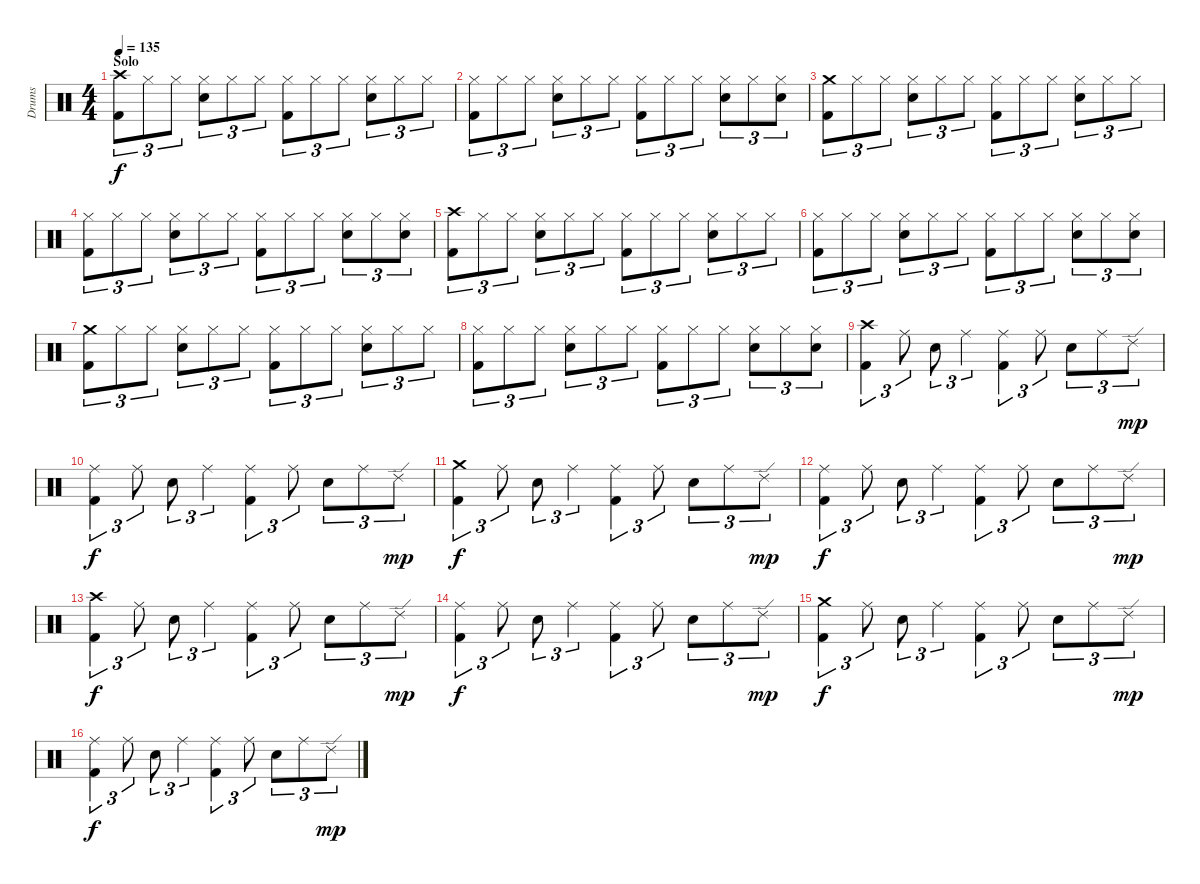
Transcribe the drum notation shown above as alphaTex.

\track ("Drums" "Drums") {instrument percussion}
\staff {score}
\articulation defaults
\ts (4 4)
\section ("" "Solo")
\tempo 135
\clef neutral
\ks c
("Crash high (hit)" "Kick (hit) 2").8{tu (3 2) dy f} "Hi-Hat (closed)".8{tu (3 2)} "Hi-Hat (closed)".8{tu (3 2)} ("Hi-Hat (closed)" "Snare (hit) 2").8{tu (3 2)} "Hi-Hat (closed)".8{tu (3 2)} "Hi-Hat (closed)".8{tu (3 2)} ("Hi-Hat (closed)" "Kick (hit) 2").8{tu (3 2)} "Hi-Hat (closed)".8{tu (3 2)} "Hi-Hat (closed)".8{tu (3 2)} ("Hi-Hat (closed)" "Snare (hit) 2").8{tu (3 2)} "Hi-Hat (closed)".8{tu (3 2)} "Hi-Hat (closed)".8{tu (3 2)} |
("Hi-Hat (closed)" "Kick (hit) 2").8{tu (3 2)} "Hi-Hat (closed)".8{tu (3 2)} "Hi-Hat (closed)".8{tu (3 2)} ("Hi-Hat (closed)" "Snare (hit) 2").8{tu (3 2)} "Hi-Hat (closed)".8{tu (3 2)} "Hi-Hat (closed)".8{tu (3 2)} ("Hi-Hat (closed)" "Kick (hit) 2").8{tu (3 2)} "Hi-Hat (closed)".8{tu (3 2)} "Hi-Hat (closed)".8{tu (3 2)} ("Hi-Hat (closed)" "Snare (hit) 2").8{tu (3 2)} "Hi-Hat (closed)".8{tu (3 2)} ("Hi-Hat (closed)" "Snare (hit) 2").8{tu (3 2)} |
("Crash medium (hit)" "Kick (hit) 2").8{tu (3 2)} "Hi-Hat (closed)".8{tu (3 2)} "Hi-Hat (closed)".8{tu (3 2)} ("Hi-Hat (closed)" "Snare (hit) 2").8{tu (3 2)} "Hi-Hat (closed)".8{tu (3 2)} "Hi-Hat (closed)".8{tu (3 2)} ("Hi-Hat (closed)" "Kick (hit) 2").8{tu (3 2)} "Hi-Hat (closed)".8{tu (3 2)} "Hi-Hat (closed)".8{tu (3 2)} ("Hi-Hat (closed)" "Snare (hit) 2").8{tu (3 2)} "Hi-Hat (closed)".8{tu (3 2)} "Hi-Hat (closed)".8{tu (3 2)} |
("Hi-Hat (closed)" "Kick (hit) 2").8{tu (3 2)} "Hi-Hat (closed)".8{tu (3 2)} "Hi-Hat (closed)".8{tu (3 2)} ("Hi-Hat (closed)" "Snare (hit) 2").8{tu (3 2)} "Hi-Hat (closed)".8{tu (3 2)} "Hi-Hat (closed)".8{tu (3 2)} ("Hi-Hat (closed)" "Kick (hit) 2").8{tu (3 2)} "Hi-Hat (closed)".8{tu (3 2)} "Hi-Hat (closed)".8{tu (3 2)} ("Hi-Hat (closed)" "Snare (hit) 2").8{tu (3 2)} "Hi-Hat (closed)".8{tu (3 2)} ("Hi-Hat (closed)" "Snare (hit) 2").8{tu (3 2)} |
("Crash high (hit)" "Kick (hit) 2").8{tu (3 2)} "Hi-Hat (closed)".8{tu (3 2)} "Hi-Hat (closed)".8{tu (3 2)} ("Hi-Hat (closed)" "Snare (hit) 2").8{tu (3 2)} "Hi-Hat (closed)".8{tu (3 2)} "Hi-Hat (closed)".8{tu (3 2)} ("Hi-Hat (closed)" "Kick (hit) 2").8{tu (3 2)} "Hi-Hat (closed)".8{tu (3 2)} "Hi-Hat (closed)".8{tu (3 2)} ("Hi-Hat (closed)" "Snare (hit) 2").8{tu (3 2)} "Hi-Hat (closed)".8{tu (3 2)} "Hi-Hat (closed)".8{tu (3 2)} |
("Hi-Hat (closed)" "Kick (hit) 2").8{tu (3 2)} "Hi-Hat (closed)".8{tu (3 2)} "Hi-Hat (closed)".8{tu (3 2)} ("Hi-Hat (closed)" "Snare (hit) 2").8{tu (3 2)} "Hi-Hat (closed)".8{tu (3 2)} "Hi-Hat (closed)".8{tu (3 2)} ("Hi-Hat (closed)" "Kick (hit) 2").8{tu (3 2)} "Hi-Hat (closed)".8{tu (3 2)} "Hi-Hat (closed)".8{tu (3 2)} ("Hi-Hat (closed)" "Snare (hit) 2").8{tu (3 2)} "Hi-Hat (closed)".8{tu (3 2)} ("Hi-Hat (closed)" "Snare (hit) 2").8{tu (3 2)} |
("Crash medium (hit)" "Kick (hit) 2").8{tu (3 2)} "Hi-Hat (closed)".8{tu (3 2)} "Hi-Hat (closed)".8{tu (3 2)} ("Hi-Hat (closed)" "Snare (hit) 2").8{tu (3 2)} "Hi-Hat (closed)".8{tu (3 2)} "Hi-Hat (closed)".8{tu (3 2)} ("Hi-Hat (closed)" "Kick (hit) 2").8{tu (3 2)} "Hi-Hat (closed)".8{tu (3 2)} "Hi-Hat (closed)".8{tu (3 2)} ("Hi-Hat (closed)" "Snare (hit) 2").8{tu (3 2)} "Hi-Hat (closed)".8{tu (3 2)} "Hi-Hat (closed)".8{tu (3 2)} |
("Hi-Hat (closed)" "Kick (hit) 2").8{tu (3 2)} "Hi-Hat (closed)".8{tu (3 2)} "Hi-Hat (closed)".8{tu (3 2)} ("Hi-Hat (closed)" "Snare (hit) 2").8{tu (3 2)} "Hi-Hat (closed)".8{tu (3 2)} "Hi-Hat (closed)".8{tu (3 2)} ("Hi-Hat (closed)" "Kick (hit) 2").8{tu (3 2)} "Hi-Hat (closed)".8{tu (3 2)} "Hi-Hat (closed)".8{tu (3 2)} ("Hi-Hat (closed)" "Snare (hit) 2").8{tu (3 2)} "Hi-Hat (closed)".8{tu (3 2)} ("Hi-Hat (closed)" "Snare (hit) 2").8{tu (3 2)} |
("Crash high (hit)" "Kick (hit) 2").4{tu (3 2)} "Ride (middle)".8{tu (3 2)} "Snare (hit) 2".8{tu (3 2)} "Ride (middle)".4{tu (3 2)} ("Ride (middle)" "Kick (hit) 2").4{tu (3 2)} "Ride (middle)".8{tu (3 2)} "Snare (hit) 2".8{tu (3 2)} "Ride (middle)".8{tu (3 2)} "Ride (edge) 2".8{tu (3 2) dy mp} |
("Ride (middle)" "Kick (hit) 2").4{tu (3 2) dy f} "Ride (middle)".8{tu (3 2)} "Snare (hit) 2".8{tu (3 2)} "Ride (middle)".4{tu (3 2)} ("Ride (middle)" "Kick (hit) 2").4{tu (3 2)} "Ride (middle)".8{tu (3 2)} "Snare (hit) 2".8{tu (3 2)} "Ride (middle)".8{tu (3 2)} "Ride (edge) 2".8{tu (3 2) dy mp} |
("Crash medium (hit)" "Kick (hit) 2").4{tu (3 2) dy f} "Ride (middle)".8{tu (3 2)} "Snare (hit) 2".8{tu (3 2)} "Ride (middle)".4{tu (3 2)} ("Ride (middle)" "Kick (hit) 2").4{tu (3 2)} "Ride (middle)".8{tu (3 2)} "Snare (hit) 2".8{tu (3 2)} "Ride (middle)".8{tu (3 2)} "Ride (edge) 2".8{tu (3 2) dy mp} |
("Ride (middle)" "Kick (hit) 2").4{tu (3 2) dy f} "Ride (middle)".8{tu (3 2)} "Snare (hit) 2".8{tu (3 2)} "Ride (middle)".4{tu (3 2)} ("Ride (middle)" "Kick (hit) 2").4{tu (3 2)} "Ride (middle)".8{tu (3 2)} "Snare (hit) 2".8{tu (3 2)} "Ride (middle)".8{tu (3 2)} "Ride (edge) 2".8{tu (3 2) dy mp} |
("Crash high (hit)" "Kick (hit) 2").4{tu (3 2) dy f} "Ride (middle)".8{tu (3 2)} "Snare (hit) 2".8{tu (3 2)} "Ride (middle)".4{tu (3 2)} ("Ride (middle)" "Kick (hit) 2").4{tu (3 2)} "Ride (middle)".8{tu (3 2)} "Snare (hit) 2".8{tu (3 2)} "Ride (middle)".8{tu (3 2)} "Ride (edge) 2".8{tu (3 2) dy mp} |
("Ride (middle)" "Kick (hit) 2").4{tu (3 2) dy f} "Ride (middle)".8{tu (3 2)} "Snare (hit) 2".8{tu (3 2)} "Ride (middle)".4{tu (3 2)} ("Ride (middle)" "Kick (hit) 2").4{tu (3 2)} "Ride (middle)".8{tu (3 2)} "Snare (hit) 2".8{tu (3 2)} "Ride (middle)".8{tu (3 2)} "Ride (edge) 2".8{tu (3 2) dy mp} |
("Crash medium (hit)" "Kick (hit) 2").4{tu (3 2) dy f} "Ride (middle)".8{tu (3 2)} "Snare (hit) 2".8{tu (3 2)} "Ride (middle)".4{tu (3 2)} ("Ride (middle)" "Kick (hit) 2").4{tu (3 2)} "Ride (middle)".8{tu (3 2)} "Snare (hit) 2".8{tu (3 2)} "Ride (middle)".8{tu (3 2)} "Ride (edge) 2".8{tu (3 2) dy mp} |
("Ride (middle)" "Kick (hit) 2").4{tu (3 2) dy f} "Ride (middle)".8{tu (3 2)} "Snare (hit) 2".8{tu (3 2)} "Ride (middle)".4{tu (3 2)} ("Ride (middle)" "Kick (hit) 2").4{tu (3 2)} "Ride (middle)".8{tu (3 2)} "Snare (hit) 2".8{tu (3 2)} "Ride (middle)".8{tu (3 2)} "Ride (edge) 2".8{tu (3 2) dy mp}
